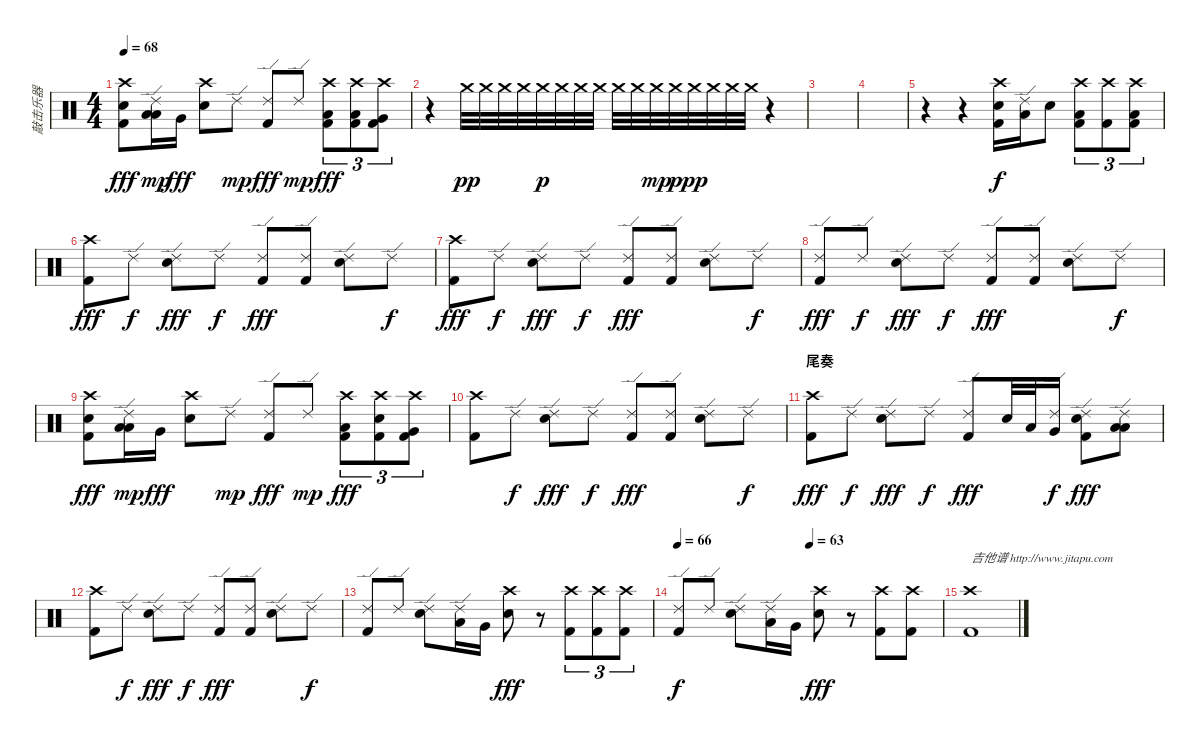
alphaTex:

\track ("敲击乐器" "敲击乐器") {instrument percussion}
\staff {score}
\articulation defaults
\ts (4 4)
\tempo 68
\clef neutral
\ks c
("Crash high (hit)" "Electric Snare (hit)" "Kick (hit) 2").8{dy fff} ("Ride (edge) 2" "Low Tom (hit)" "Low Tom (hit)").16{dy mp} "Very Low Tom (hit)".16{dy fff} ("Crash high (hit)" "Electric Snare (hit)").8 "Ride (edge) 2".8{dy mp} ("Ride (edge) 2" "Kick (hit) 2").8{dy fff} "Ride (edge) 2".8{dy mp} ("Crash high (hit)" "Low Tom (hit)" "Kick (hit) 2").8{tu (3 2) dy fff} ("Crash high (hit)" "Low Tom (hit)" "Kick (hit) 2").8{tu (3 2)} ("Crash high (hit)" "Very Low Tom (hit)" "Kick (hit) 2").8{tu (3 2)} |
r.4 "Crash medium (hit)".32{dy pp} "Crash medium (hit)".32 "Crash medium (hit)".32 "Crash medium (hit)".32 "Crash medium (hit)".32{dy p} "Crash medium (hit)".32 "Crash medium (hit)".32 "Crash medium (hit)".32 "Crash medium (hit)".32 "Crash medium (hit)".32 "Crash medium (hit)".32{dy mp} "Crash medium (hit)".32{dy p} "Crash medium (hit)".32{dy pp} "Crash medium (hit)".32 "Crash medium (hit)".32 "Crash medium (hit)".32 r.4 |
|
|
r.4 r.4 ("Crash high (hit)" "Electric Snare (hit)" "Kick (hit) 2").16{dy f} ("Ride (edge) 2" "Low Tom (hit)").16 "Electric Snare (hit)".8 ("Crash high (hit)" "Low Tom (hit)" "Kick (hit) 2").8{tu (3 2)} ("Crash high (hit)" "Kick (hit) 2").8{tu (3 2)} ("Crash high (hit)" "Low Tom (hit)" "Kick (hit) 2").8{tu (3 2)} |
("Crash high (hit)" "Kick (hit) 2").8{dy fff} "Ride (edge) 2".8{dy f} ("Ride (edge) 2" "Electric Snare (hit)").8{dy fff} "Ride (edge) 2".8{dy f} ("Ride (edge) 2" "Kick (hit) 2").8{dy fff} ("Ride (edge) 2" "Kick (hit) 2").8 ("Ride (edge) 2" "Electric Snare (hit)").8 "Ride (edge) 2".8{dy f} |
("Crash high (hit)" "Kick (hit) 2").8{dy fff} "Ride (edge) 2".8{dy f} ("Ride (edge) 2" "Electric Snare (hit)").8{dy fff} "Ride (edge) 2".8{dy f} ("Ride (edge) 2" "Kick (hit) 2").8{dy fff} ("Ride (edge) 2" "Kick (hit) 2").8 ("Ride (edge) 2" "Electric Snare (hit)").8 "Ride (edge) 2".8{dy f} |
("Ride (edge) 2" "Kick (hit) 2").8{dy fff} "Ride (edge) 2".8{dy f} ("Ride (edge) 2" "Electric Snare (hit)").8{dy fff} "Ride (edge) 2".8{dy f} ("Ride (edge) 2" "Kick (hit) 2").8{dy fff} ("Ride (edge) 2" "Kick (hit) 2").8 ("Ride (edge) 2" "Electric Snare (hit)").8 "Ride (edge) 2".8{dy f} |
("Crash high (hit)" "Electric Snare (hit)" "Kick (hit) 2").8{dy fff} ("Ride (edge) 2" "Low Tom (hit)" "Low Tom (hit)").16{dy mp} "Very Low Tom (hit)".16{dy fff} ("Crash high (hit)" "Electric Snare (hit)").8 "Ride (edge) 2".8{dy mp} ("Ride (edge) 2" "Kick (hit) 2").8{dy fff} "Ride (edge) 2".8{dy mp} ("Crash high (hit)" "Low Tom (hit)" "Kick (hit) 2").8{tu (3 2) dy fff} ("Crash high (hit)" "Electric Snare (hit)" "Kick (hit) 2").8{tu (3 2)} ("Crash high (hit)" "Very Low Tom (hit)" "Kick (hit) 2").8{tu (3 2)} |
("Crash high (hit)" "Kick (hit) 2").8 "Ride (edge) 2".8{dy f} ("Ride (edge) 2" "Electric Snare (hit)").8{dy fff} "Ride (edge) 2".8{dy f} ("Ride (edge) 2" "Kick (hit) 2").8{dy fff} ("Ride (edge) 2" "Kick (hit) 2").8 ("Ride (edge) 2" "Electric Snare (hit)").8 "Ride (edge) 2".8{dy f} |
\section ("" "尾奏")
("Crash high (hit)" "Kick (hit) 2").8{dy fff} "Ride (edge) 2".8{dy f} ("Ride (edge) 2" "Electric Snare (hit)").8{dy fff} "Ride (edge) 2".8{dy f} ("Ride (edge) 2" "Kick (hit) 2").8{dy fff} "Electric Snare (hit)".32 "Low Tom (hit)".32 ("Ride (edge) 2" "Very Low Tom (hit)").16{dy f} ("Ride (edge) 2" "Electric Snare (hit)" "Kick (hit) 2").8{dy fff} ("Ride (edge) 2" "Low Tom (hit)" "Low Tom (hit)").8 |
("Crash high (hit)" "Kick (hit) 2").8 "Ride (edge) 2".8{dy f} ("Ride (edge) 2" "Electric Snare (hit)").8{dy fff} "Ride (edge) 2".8{dy f} ("Ride (edge) 2" "Kick (hit) 2").8{dy fff} ("Ride (edge) 2" "Kick (hit) 2").8 ("Ride (edge) 2" "Electric Snare (hit)").8 "Ride (edge) 2".8{dy f} |
("Ride (edge) 2" "Kick (hit) 2").8 "Ride (edge) 2".8 ("Ride (edge) 2" "Electric Snare (hit)").8 ("Ride (edge) 2" "Low Tom (hit)").16 "Very Low Tom (hit)".16 ("Crash high (hit)" "Electric Snare (hit)").8{dy fff} r.8 ("Crash high (hit)" "Kick (hit) 2").8{tu (3 2)} ("Crash high (hit)" "Kick (hit) 2").8{tu (3 2)} ("Crash high (hit)" "Kick (hit) 2").8{tu (3 2)} |
\tempo 66
\tempo (63 0.5)
("Ride (edge) 2" "Kick (hit) 2").8{dy f} "Ride (edge) 2".8 ("Ride (edge) 2" "Electric Snare (hit)").8 ("Ride (edge) 2" "Low Tom (hit)").16 "Very Low Tom (hit)".16 ("Crash high (hit)" "Electric Snare (hit)").8{dy fff} r.8 ("Crash high (hit)" "Kick (hit) 2").8 ("Crash high (hit)" "Kick (hit) 2").8 |
("Crash high (hit)" "Kick (hit) 2").1{txt "吉他谱 http://www.jitapu.com"}
